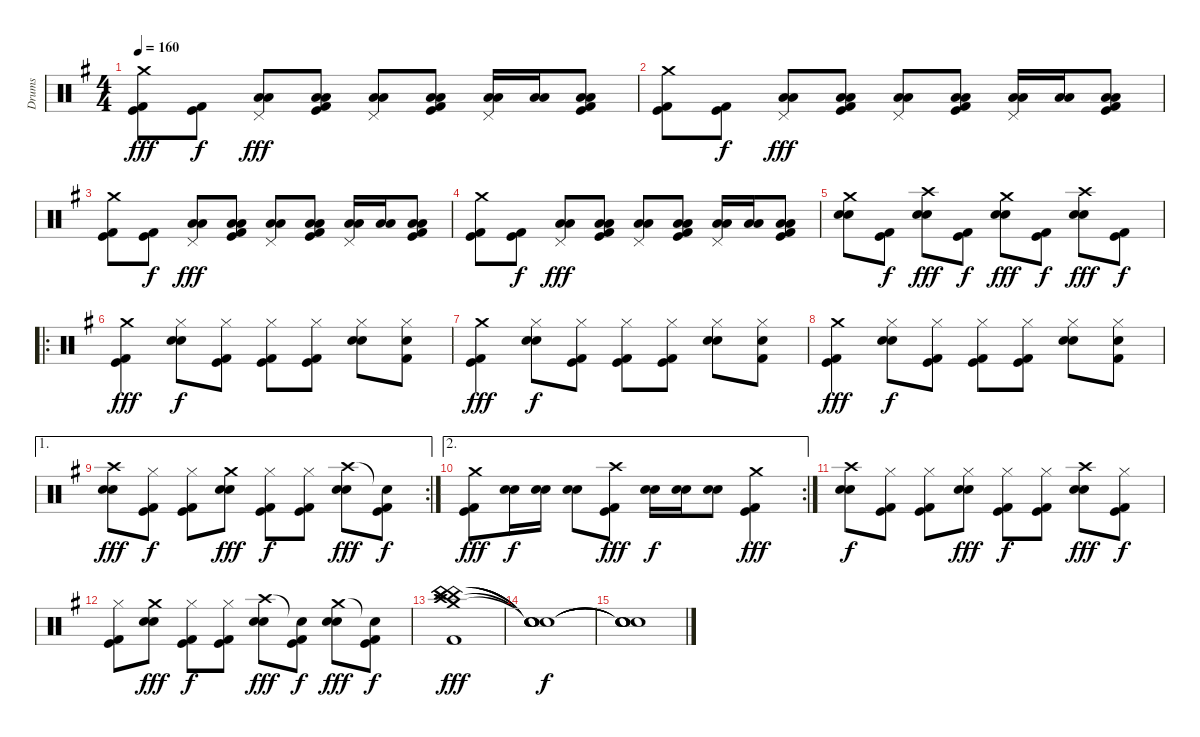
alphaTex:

\track ("Drums" "Drums") {instrument percussion}
\staff {score}
\articulation defaults
\ts (4 4)
\tempo 160
\clef neutral
\ks g
("Crash medium (hit)" "Kick (hit)" "Kick (hit) 2").8{dy fff} ("Kick (hit)" "Kick (hit) 2").8{dy f} ("Pedal Hi-Hat (hit)" "Low Tom (hit)" "Low Tom (hit)").8{dy fff} ("Low Tom (hit)" "Low Tom (hit)" "Kick (hit)" "Kick (hit) 2").8 ("Pedal Hi-Hat (hit)" "Low Tom (hit)" "Low Tom (hit)").8 ("Low Tom (hit)" "Low Tom (hit)" "Kick (hit)" "Kick (hit) 2").8 ("Pedal Hi-Hat (hit)" "Low Tom (hit)" "Low Tom (hit)").16 ("Low Tom (hit)" "Low Tom (hit)").16 ("Low Tom (hit)" "Low Tom (hit)" "Kick (hit)" "Kick (hit) 2").8 |
("Crash medium (hit)" "Kick (hit)" "Kick (hit) 2").8 ("Kick (hit)" "Kick (hit) 2").8{dy f} ("Pedal Hi-Hat (hit)" "Low Tom (hit)" "Low Tom (hit)").8{dy fff} ("Low Tom (hit)" "Low Tom (hit)" "Kick (hit)" "Kick (hit) 2").8 ("Pedal Hi-Hat (hit)" "Low Tom (hit)" "Low Tom (hit)").8 ("Low Tom (hit)" "Low Tom (hit)" "Kick (hit)" "Kick (hit) 2").8 ("Pedal Hi-Hat (hit)" "Low Tom (hit)" "Low Tom (hit)").16 ("Low Tom (hit)" "Low Tom (hit)").16 ("Low Tom (hit)" "Low Tom (hit)" "Kick (hit)" "Kick (hit) 2").8 |
("Crash medium (hit)" "Kick (hit)" "Kick (hit) 2").8 ("Kick (hit)" "Kick (hit) 2").8{dy f} ("Pedal Hi-Hat (hit)" "Low Tom (hit)" "Low Tom (hit)").8{dy fff} ("Low Tom (hit)" "Low Tom (hit)" "Kick (hit)" "Kick (hit) 2").8 ("Pedal Hi-Hat (hit)" "Low Tom (hit)" "Low Tom (hit)").8 ("Low Tom (hit)" "Low Tom (hit)" "Kick (hit)" "Kick (hit) 2").8 ("Pedal Hi-Hat (hit)" "Low Tom (hit)" "Low Tom (hit)").16 ("Low Tom (hit)" "Low Tom (hit)").16 ("Low Tom (hit)" "Low Tom (hit)" "Kick (hit)" "Kick (hit) 2").8 |
("Crash medium (hit)" "Kick (hit)" "Kick (hit) 2").8 ("Kick (hit)" "Kick (hit) 2").8{dy f} ("Pedal Hi-Hat (hit)" "Low Tom (hit)" "Low Tom (hit)").8{dy fff} ("Low Tom (hit)" "Low Tom (hit)" "Kick (hit)" "Kick (hit) 2").8 ("Pedal Hi-Hat (hit)" "Low Tom (hit)" "Low Tom (hit)").8 ("Low Tom (hit)" "Low Tom (hit)" "Kick (hit)" "Kick (hit) 2").8 ("Pedal Hi-Hat (hit)" "Low Tom (hit)" "Low Tom (hit)").16 ("Low Tom (hit)" "Low Tom (hit)").16 ("Low Tom (hit)" "Low Tom (hit)" "Kick (hit)" "Kick (hit) 2").8 |
("Crash medium (hit)" "Electric Snare (hit)" "Snare (hit) 2").8 ("Kick (hit)" "Kick (hit) 2").8{dy f} ("Crash high (hit)" "Electric Snare (hit)" "Snare (hit) 2").8{dy fff} ("Kick (hit)" "Kick (hit) 2").8{dy f} ("Crash medium (hit)" "Electric Snare (hit)" "Snare (hit) 2").8{dy fff} ("Kick (hit)" "Kick (hit) 2").8{dy f} ("Crash high (hit)" "Electric Snare (hit)" "Snare (hit) 2").8{dy fff} ("Kick (hit)" "Kick (hit) 2").8{dy f} |
\ro
("Crash medium (hit)" "Kick (hit)" "Kick (hit) 2").4{dy fff} ("Hi-Hat (closed)" "Electric Snare (hit)" "Snare (hit) 2").8{dy f} ("Hi-Hat (closed)" "Kick (hit)" "Kick (hit) 2").8 ("Hi-Hat (closed)" "Kick (hit)" "Kick (hit) 2").8 ("Hi-Hat (closed)" "Kick (hit)" "Kick (hit) 2").8 ("Hi-Hat (closed)" "Electric Snare (hit)" "Snare (hit) 2").8 ("Hi-Hat (closed)" "Snare (hit)" "Kick (hit) 2").8 |
("Crash medium (hit)" "Kick (hit)" "Kick (hit) 2").4{dy fff} ("Hi-Hat (closed)" "Electric Snare (hit)" "Snare (hit) 2").8{dy f} ("Hi-Hat (closed)" "Kick (hit)" "Kick (hit) 2").8 ("Hi-Hat (closed)" "Kick (hit)" "Kick (hit) 2").8 ("Hi-Hat (closed)" "Kick (hit)" "Kick (hit) 2").8 ("Hi-Hat (closed)" "Electric Snare (hit)" "Snare (hit) 2").8 ("Hi-Hat (closed)" "Snare (hit)" "Kick (hit) 2").8 |
("Crash medium (hit)" "Kick (hit)" "Kick (hit) 2").4{dy fff} ("Hi-Hat (closed)" "Electric Snare (hit)" "Snare (hit) 2").8{dy f} ("Hi-Hat (closed)" "Kick (hit)" "Kick (hit) 2").8 ("Hi-Hat (closed)" "Kick (hit)" "Kick (hit) 2").8 ("Hi-Hat (closed)" "Kick (hit)" "Kick (hit) 2").8 ("Hi-Hat (closed)" "Electric Snare (hit)" "Snare (hit) 2").8 ("Hi-Hat (closed)" "Snare (hit)" "Kick (hit) 2").8 |
\ae 1
\rc 2
("Crash high (hit)" "Electric Snare (hit)" "Snare (hit) 2").8{dy fff} ("Hi-Hat (closed)" "Kick (hit)" "Kick (hit) 2").8{dy f} ("Hi-Hat (closed)" "Kick (hit)" "Kick (hit) 2").8 ("Crash medium (hit)" "Electric Snare (hit)" "Snare (hit) 2").8{dy fff} ("Hi-Hat (closed)" "Kick (hit)" "Kick (hit) 2").8{dy f} ("Hi-Hat (closed)" "Kick (hit)" "Kick (hit) 2").8 ("Crash high (hit)" "Electric Snare (hit)" "Snare (hit) 2").8{dy fff} ("Snare (hit)"{t} "Kick (hit)" "Kick (hit) 2").8{dy f} |
\ae 2
\rc 2
("Crash medium (hit)" "Kick (hit)" "Kick (hit) 2").8{dy fff} ("Electric Snare (hit)" "Snare (hit) 2").16{dy f} ("Electric Snare (hit)" "Snare (hit) 2").16 ("Electric Snare (hit)" "Snare (hit) 2").8 ("Crash high (hit)" "Kick (hit)" "Kick (hit) 2").8{dy fff} ("Electric Snare (hit)" "Snare (hit) 2").16{dy f} ("Electric Snare (hit)" "Snare (hit) 2").16 ("Electric Snare (hit)" "Snare (hit) 2").8 ("Crash medium (hit)" "Kick (hit)" "Kick (hit) 2").4{dy fff} |
("Crash high (hit)" "Electric Snare (hit)" "Snare (hit) 2").8{dy f} ("Hi-Hat (closed)" "Kick (hit)" "Kick (hit) 2").8 ("Hi-Hat (closed)" "Kick (hit)" "Kick (hit) 2").8 ("Hi-Hat (closed)" "Electric Snare (hit)" "Snare (hit) 2").8{dy fff} ("Hi-Hat (closed)" "Kick (hit)" "Kick (hit) 2").8{dy f} ("Hi-Hat (closed)" "Kick (hit)" "Kick (hit) 2").8 ("Crash high (hit)" "Electric Snare (hit)" "Snare (hit) 2").8{dy fff} ("Hi-Hat (closed)" "Kick (hit)" "Kick (hit) 2").8{dy f} |
("Hi-Hat (closed)" "Kick (hit)" "Kick (hit) 2").8 ("Crash medium (hit)" "Electric Snare (hit)" "Snare (hit) 2").8{dy fff} ("Hi-Hat (closed)" "Kick (hit)" "Kick (hit) 2").8{dy f} ("Hi-Hat (closed)" "Kick (hit)" "Kick (hit) 2").8 ("Crash high (hit)" "Electric Snare (hit)" "Snare (hit) 2").8{dy fff} ("Snare (hit)"{t} "Kick (hit)" "Kick (hit) 2").8{dy f} ("Crash medium (hit)" "Electric Snare (hit)" "Snare (hit) 2").8{dy fff} ("Snare (hit)"{t} "Kick (hit)" "Kick (hit) 2").8{dy f} |
("China (hit)" "Crash high (hit)" "China (hit)" "Crash medium (hit)" "China (hit)" "Kick (hit) 2").1{dy fff volume 16} |
("Snare (hit)"{t} "Snare (hit)"{t} "Snare (hit)"{t} "Snare (hit)"{t} "Snare (hit)"{t}).1{dy f} |
("Snare (hit)"{t} "Snare (hit)"{t} "Snare (hit)"{t} "Snare (hit)"{t} "Snare (hit)"{t}).1
